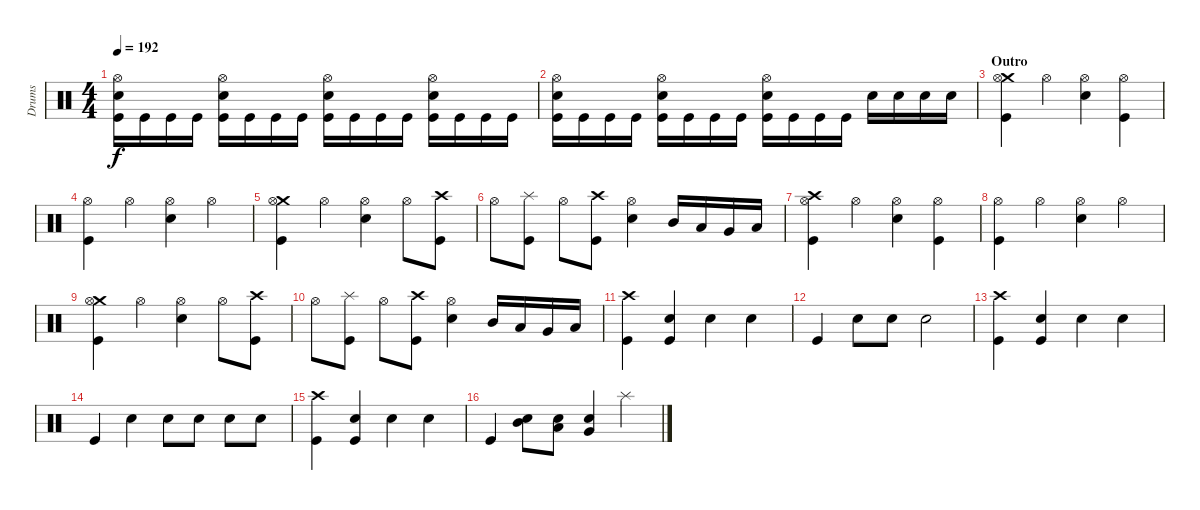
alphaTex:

\track ("Drums" "Drums") {instrument percussion}
\staff {score}
\articulation defaults
\ts (4 4)
\tempo 192
\clef neutral
\ks c
("Hi-Hat (open)" "Snare (hit) 2" "Kick (hit)").16{dy f} "Kick (hit)".16 "Kick (hit)".16 "Kick (hit)".16 ("Hi-Hat (open)" "Snare (hit) 2" "Kick (hit)").16 "Kick (hit)".16 "Kick (hit)".16 "Kick (hit)".16 ("Hi-Hat (open)" "Snare (hit) 2" "Kick (hit)").16 "Kick (hit)".16 "Kick (hit)".16 "Kick (hit)".16 ("Hi-Hat (open)" "Snare (hit) 2" "Kick (hit)").16 "Kick (hit)".16 "Kick (hit)".16 "Kick (hit)".16 |
("Hi-Hat (open)" "Snare (hit) 2" "Kick (hit)").16 "Kick (hit)".16 "Kick (hit)".16 "Kick (hit)".16 ("Hi-Hat (open)" "Snare (hit) 2" "Kick (hit)").16 "Kick (hit)".16 "Kick (hit)".16 "Kick (hit)".16 ("Hi-Hat (open)" "Snare (hit) 2" "Kick (hit)").16 "Kick (hit)".16 "Kick (hit)".16 "Kick (hit)".16 "Snare (hit) 2".16 "Snare (hit) 2".16 "Snare (hit) 2".16 "Snare (hit) 2".16 |
\section ("" "Outro")
("Crash medium (hit)" "Hi-Hat (open)" "Kick (hit)").4 "Hi-Hat (open)".4 ("Hi-Hat (open)" "Snare (hit) 2").4 ("Hi-Hat (open)" "Kick (hit)").4 |
("Hi-Hat (open)" "Kick (hit)").4 "Hi-Hat (open)".4 ("Hi-Hat (open)" "Snare (hit) 2").4 "Hi-Hat (open)".4 |
("Crash medium (hit)" "Hi-Hat (open)" "Kick (hit)").4 "Hi-Hat (open)".4 ("Hi-Hat (open)" "Snare (hit) 2").4 "Hi-Hat (open)".8 ("Crash high (hit)" "Kick (hit)").8 |
"Hi-Hat (open)".8 ("Splash (hit)" "Kick (hit)").8 "Hi-Hat (open)".8 ("Crash high (hit)" "Kick (hit)").8 ("Hi-Hat (open)" "Snare (hit) 2").4 "Mid Tom (hit)".16 "Low Tom (hit)".16 "Very Low Tom (hit)".16 "Low Floor Tom (hit)".16 |
("Crash high (hit)" "Hi-Hat (open)" "Kick (hit)").4 "Hi-Hat (open)".4 ("Hi-Hat (open)" "Snare (hit) 2").4 ("Hi-Hat (open)" "Kick (hit)").4 |
("Hi-Hat (open)" "Kick (hit)").4 "Hi-Hat (open)".4 ("Hi-Hat (open)" "Snare (hit) 2").4 "Hi-Hat (open)".4 |
("Crash medium (hit)" "Hi-Hat (open)" "Kick (hit)").4 "Hi-Hat (open)".4 ("Hi-Hat (open)" "Snare (hit) 2").4 "Hi-Hat (open)".8 ("Crash high (hit)" "Kick (hit)").8 |
"Hi-Hat (open)".8 ("Splash (hit)" "Kick (hit)").8 "Hi-Hat (open)".8 ("Crash high (hit)" "Kick (hit)").8 ("Hi-Hat (open)" "Snare (hit) 2").4 "Mid Tom (hit)".16 "Low Tom (hit)".16 "Very Low Tom (hit)".16 "Low Floor Tom (hit)".16 |
("Crash high (hit)" "Kick (hit)").4 ("Snare (hit) 2"{tr (38 16)} "Kick (hit)").4 "Snare (hit) 2".4 "Snare (hit) 2".4 |
"Kick (hit)".4 "Snare (hit) 2".8 "Snare (hit) 2".8 "Snare (hit) 2".2 |
("Crash high (hit)" "Kick (hit)").4 ("Snare (hit) 2"{tr (38 16)} "Kick (hit)").4 "Snare (hit) 2".4 "Snare (hit) 2".4 |
"Kick (hit)".4 "Snare (hit) 2".4 "Snare (hit) 2".8 "Snare (hit) 2".8 "Snare (hit) 2".8 "Snare (hit) 2".8 |
("Crash high (hit)" "Kick (hit)").4 ("Snare (hit) 2"{tr (38 16)} "Kick (hit)").4 "Snare (hit) 2".4 "Snare (hit) 2".4 |
"Kick (hit)".4 ("Snare (hit) 2" "Mid Tom (hit)").8 ("Snare (hit) 2" "Low Tom (hit)").8 ("Snare (hit) 2" "Very Low Tom (hit)").4 "Splash (hit)".4
